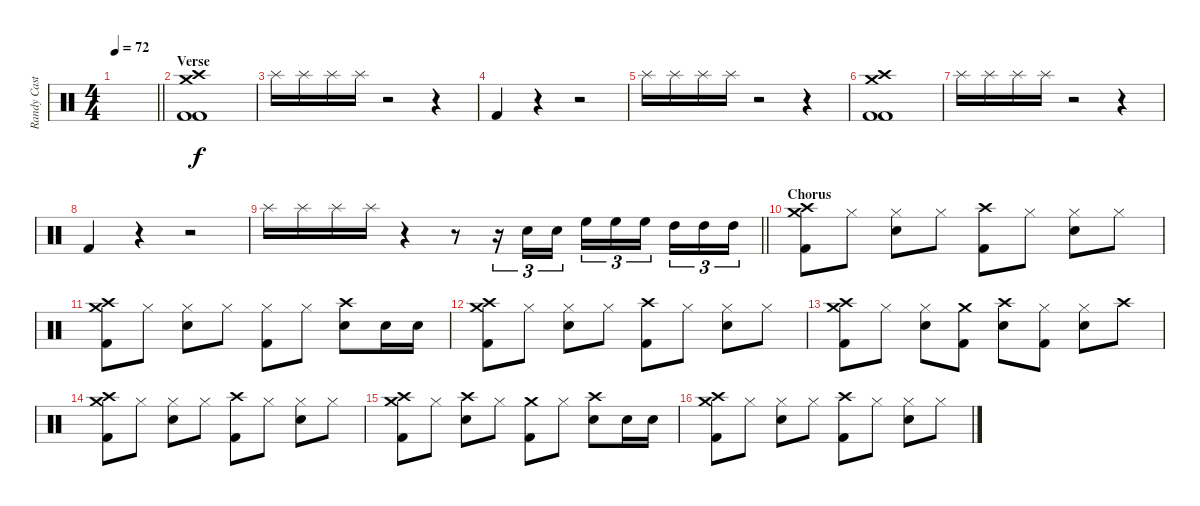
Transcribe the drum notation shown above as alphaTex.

\track ("Randy Castillo" "Randy Cast") {instrument percussion}
\staff {score}
\articulation defaults
\ts (4 4)
\tempo 72
\clef neutral
\barLineRight lightlight
\ks c
|
\section ("" "Verse")
("Crash high (hit)" "Crash medium (hit)" "Kick (hit) 2" "Kick (hit) 2").1 |
"Splash (hit)".16 "Splash (hit)".16 "Splash (hit)".16 "Splash (hit)".16 r.2 r.4 |
"Kick (hit) 2".4 r.4 r.2 |
"Splash (hit)".16 "Splash (hit)".16 "Splash (hit)".16 "Splash (hit)".16 r.2 r.4 |
("Crash high (hit)" "Crash medium (hit)" "Kick (hit) 2" "Kick (hit) 2").1 |
"Splash (hit)".16 "Splash (hit)".16 "Splash (hit)".16 "Splash (hit)".16 r.2 r.4 |
"Kick (hit) 2".4 r.4 r.2 |
\barLineRight lightlight "Splash (hit)".16 "Splash (hit)".16 "Splash (hit)".16 "Splash (hit)".16
r.4 r.8 r.16{tu (3 2)} "Snare (hit) 2".16{tu (3 2)} "Snare (hit) 2".16{tu (3 2)} "High Floor Tom (hit)".16{tu (3 2)} "High Floor Tom (hit)".16{tu (3 2)} "High Floor Tom (hit)".16{tu (3 2) beam splitsecondary} "High Tom (hit)".16{tu (3 2)} "High Tom (hit)".16{tu (3 2)} "High Tom (hit)".16{tu (3 2)} |
\section ("" "Chorus")
("Crash medium (hit)" "Crash high (hit)" "Kick (hit) 2").8 "Hi-Hat (closed)".8 ("Hi-Hat (closed)" "Snare (hit) 2").8 "Hi-Hat (closed)".8 ("Crash high (hit)" "Kick (hit) 2").8 "Hi-Hat (closed)".8 ("Hi-Hat (closed)" "Snare (hit) 2").8 "Hi-Hat (closed)".8 |
("Crash medium (hit)" "Crash high (hit)" "Kick (hit) 2").8 "Hi-Hat (closed)".8 ("Hi-Hat (closed)" "Snare (hit) 2").8 "Hi-Hat (closed)".8 ("Hi-Hat (closed)" "Kick (hit) 2").8 "Hi-Hat (closed)".8 ("Crash high (hit)" "Snare (hit) 2").8 "Snare (hit) 2".16 "Snare (hit) 2".16 |
("Crash medium (hit)" "Crash high (hit)" "Kick (hit) 2").8 "Hi-Hat (closed)".8 ("Hi-Hat (closed)" "Snare (hit) 2").8 "Hi-Hat (closed)".8 ("Crash high (hit)" "Kick (hit) 2").8 "Hi-Hat (closed)".8 ("Hi-Hat (closed)" "Snare (hit) 2").8 "Hi-Hat (closed)".8 |
("Crash medium (hit)" "Crash high (hit)" "Kick (hit) 2").8 "Hi-Hat (closed)".8 ("Hi-Hat (closed)" "Snare (hit) 2").8 ("Crash medium (hit)" "Kick (hit) 2").8 ("Crash high (hit)" "Snare (hit) 2").8 ("Hi-Hat (closed)" "Kick (hit) 2").8 ("Hi-Hat (closed)" "Snare (hit) 2").8 "Crash high (hit)".8 |
("Crash medium (hit)" "Crash high (hit)" "Kick (hit) 2").8 "Hi-Hat (closed)".8 ("Hi-Hat (closed)" "Snare (hit) 2").8 "Hi-Hat (closed)".8 ("Crash high (hit)" "Kick (hit) 2").8 "Hi-Hat (closed)".8 ("Hi-Hat (closed)" "Snare (hit) 2").8 "Hi-Hat (closed)".8 |
("Crash medium (hit)" "Crash high (hit)" "Kick (hit) 2").8 "Hi-Hat (closed)".8 ("Crash high (hit)" "Snare (hit) 2").8 "Hi-Hat (closed)".8 ("Crash medium (hit)" "Kick (hit) 2").8 "Hi-Hat (closed)".8 ("Crash high (hit)" "Snare (hit) 2").8 "Snare (hit) 2".16 "Snare (hit) 2".16 |
("Crash medium (hit)" "Crash high (hit)" "Kick (hit) 2").8 "Hi-Hat (closed)".8 ("Hi-Hat (closed)" "Snare (hit) 2").8 "Hi-Hat (closed)".8 ("Crash high (hit)" "Kick (hit) 2").8 "Hi-Hat (closed)".8 ("Hi-Hat (closed)" "Snare (hit) 2").8 "Hi-Hat (closed)".8
